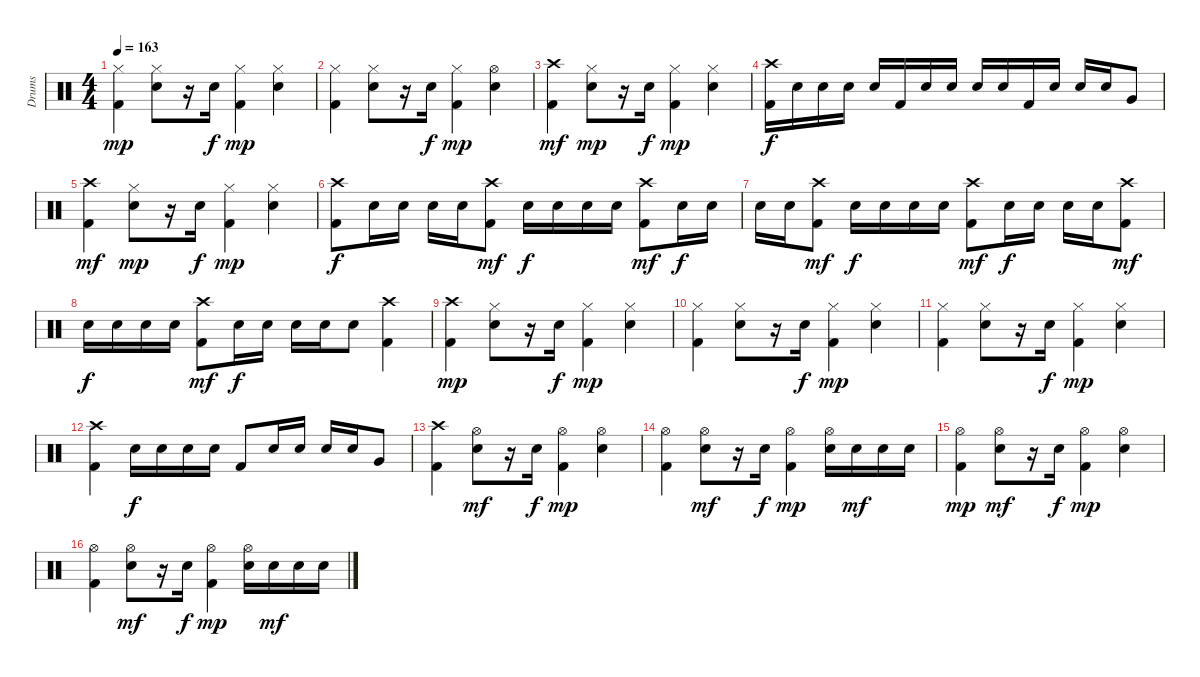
\track ("Drums" "Drums") {instrument percussion}
\staff {score}
\articulation defaults
\ts (4 4)
\tempo 163
\clef neutral
\ks c
("Hi-Hat (closed)" "Kick (hit) 2").4{dy mp} ("Hi-Hat (closed)" "Snare (hit) 2").8 r.16 "Snare (hit) 2".16{dy f} ("Hi-Hat (closed)" "Kick (hit) 2").4{dy mp} ("Hi-Hat (closed)" "Snare (hit) 2").4 |
("Hi-Hat (closed)" "Kick (hit) 2").4 ("Hi-Hat (closed)" "Snare (hit) 2").8 r.16 "Snare (hit) 2".16{dy f} ("Hi-Hat (closed)" "Kick (hit) 2").4{dy mp} ("Hi-Hat (open)" "Snare (hit) 2").4 |
("Crash high (hit)" "Kick (hit) 2").4{dy mf} ("Hi-Hat (closed)" "Snare (hit) 2").8{dy mp} r.16 "Snare (hit) 2".16{dy f} ("Hi-Hat (closed)" "Kick (hit) 2").4{dy mp} ("Hi-Hat (closed)" "Snare (hit) 2").4 |
("Crash high (hit)" "Kick (hit) 2").16{dy f} "Snare (hit) 2".16 "Snare (hit) 2".16 "Snare (hit) 2".16 "Snare (hit) 2".16 "Kick (hit) 2".16 "Snare (hit) 2".16 "Snare (hit) 2".16 "Snare (hit) 2".16 "Snare (hit) 2".16 "Kick (hit) 2".16 "Snare (hit) 2".16 "Snare (hit) 2".16 "Snare (hit) 2".16 "Very Low Tom (hit)".8 |
("Crash high (hit)" "Kick (hit) 2").4{dy mf} ("Hi-Hat (closed)" "Snare (hit) 2").8{dy mp} r.16 "Snare (hit) 2".16{dy f} ("Hi-Hat (closed)" "Kick (hit) 2").4{dy mp} ("Hi-Hat (closed)" "Snare (hit) 2").4 |
("Crash high (hit)" "Kick (hit) 2").8{dy f} "Snare (hit) 2".16 "Snare (hit) 2".16 "Snare (hit) 2".16 "Snare (hit) 2".16 ("Crash high (hit)" "Kick (hit) 2").8{dy mf} "Snare (hit) 2".16{dy f} "Snare (hit) 2".16 "Snare (hit) 2".16 "Snare (hit) 2".16 ("Crash high (hit)" "Kick (hit) 2").8{dy mf} "Snare (hit) 2".16{dy f} "Snare (hit) 2".16 |
"Snare (hit) 2".16 "Snare (hit) 2".16 ("Crash high (hit)" "Kick (hit) 2").8{dy mf} "Snare (hit) 2".16{dy f} "Snare (hit) 2".16 "Snare (hit) 2".16 "Snare (hit) 2".16 ("Crash high (hit)" "Kick (hit) 2").8{dy mf} "Snare (hit) 2".16{dy f} "Snare (hit) 2".16 "Snare (hit) 2".16 "Snare (hit) 2".16 ("Crash high (hit)" "Kick (hit) 2").8{dy mf} |
"Snare (hit) 2".16{dy f} "Snare (hit) 2".16 "Snare (hit) 2".16 "Snare (hit) 2".16 ("Crash high (hit)" "Kick (hit) 2").8{dy mf} "Snare (hit) 2".16{dy f} "Snare (hit) 2".16 "Snare (hit) 2".16 "Snare (hit) 2".16 "Snare (hit) 2".8 ("Crash high (hit)" "Kick (hit) 2").4 |
("Crash high (hit)" "Kick (hit) 2").4{dy mp} ("Hi-Hat (closed)" "Snare (hit) 2").8 r.16 "Snare (hit) 2".16{dy f} ("Hi-Hat (closed)" "Kick (hit) 2").4{dy mp} ("Hi-Hat (closed)" "Snare (hit) 2").4 |
("Hi-Hat (closed)" "Kick (hit) 2").4 ("Hi-Hat (closed)" "Snare (hit) 2").8 r.16 "Snare (hit) 2".16{dy f} ("Hi-Hat (closed)" "Kick (hit) 2").4{dy mp} ("Hi-Hat (closed)" "Snare (hit) 2").4 |
("Hi-Hat (closed)" "Kick (hit) 2").4 ("Hi-Hat (closed)" "Snare (hit) 2").8 r.16 "Snare (hit) 2".16{dy f} ("Hi-Hat (closed)" "Kick (hit) 2").4{dy mp} ("Hi-Hat (closed)" "Snare (hit) 2").4 |
("Crash high (hit)" "Kick (hit) 2").4 "Snare (hit) 2".16{dy f} "Snare (hit) 2".16 "Snare (hit) 2".16 "Snare (hit) 2".16 "Kick (hit) 2".8 "Snare (hit) 2".16 "Snare (hit) 2".16 "Snare (hit) 2".16 "Snare (hit) 2".16 "Very Low Tom (hit)".8 |
("Crash high (hit)" "Kick (hit) 2").4 ("Hi-Hat (open)" "Snare (hit) 2").8{dy mf} r.16 "Snare (hit) 2".16{dy f} ("Hi-Hat (open)" "Kick (hit) 2").4{dy mp} ("Hi-Hat (open)" "Snare (hit) 2").4 |
("Hi-Hat (open)" "Kick (hit) 2").4 ("Hi-Hat (open)" "Snare (hit) 2").8{dy mf} r.16 "Snare (hit) 2".16{dy f} ("Hi-Hat (open)" "Kick (hit) 2").4{dy mp} ("Hi-Hat (open)" "Snare (hit) 2").16 "Snare (hit) 2".16{dy mf} "Snare (hit) 2".16 "Snare (hit) 2".16 |
("Hi-Hat (open)" "Kick (hit) 2").4{dy mp} ("Hi-Hat (open)" "Snare (hit) 2").8{dy mf} r.16 "Snare (hit) 2".16{dy f} ("Hi-Hat (open)" "Kick (hit) 2").4{dy mp} ("Hi-Hat (open)" "Snare (hit) 2").4 |
("Hi-Hat (open)" "Kick (hit) 2").4 ("Hi-Hat (open)" "Snare (hit) 2").8{dy mf} r.16 "Snare (hit) 2".16{dy f} ("Hi-Hat (open)" "Kick (hit) 2").4{dy mp} ("Hi-Hat (open)" "Snare (hit) 2").16 "Snare (hit) 2".16{dy mf} "Snare (hit) 2".16 "Snare (hit) 2".16
